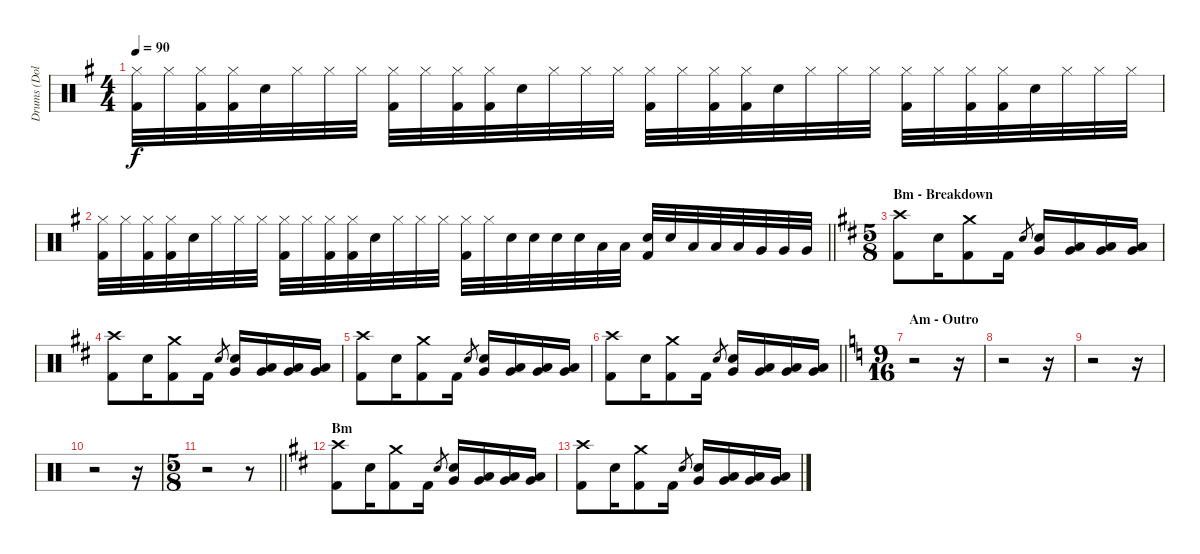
\track ("Drums (Dolmayan)" "Drums (Dol") {instrument percussion}
\staff {score}
\articulation defaults
\ts (4 4)
\tempo 90
\clef neutral
\ks eminor
("Hi-Hat (closed)" "Kick (hit) 2").32{dy f} "Hi-Hat (closed)".32 ("Hi-Hat (closed)" "Kick (hit) 2").32 ("Hi-Hat (closed)" "Kick (hit) 2").32 "Electric Snare (hit)".32 "Hi-Hat (closed)".32 "Hi-Hat (closed)".32 "Hi-Hat (closed)".32 ("Hi-Hat (closed)" "Kick (hit) 2").32 "Hi-Hat (closed)".32 ("Hi-Hat (closed)" "Kick (hit) 2").32 ("Hi-Hat (closed)" "Kick (hit) 2").32 "Electric Snare (hit)".32 "Hi-Hat (closed)".32 "Hi-Hat (closed)".32 "Hi-Hat (closed)".32 ("Hi-Hat (closed)" "Kick (hit) 2").32 "Hi-Hat (closed)".32 ("Hi-Hat (closed)" "Kick (hit) 2").32 ("Hi-Hat (closed)" "Kick (hit) 2").32 "Electric Snare (hit)".32 "Hi-Hat (closed)".32 "Hi-Hat (closed)".32 "Hi-Hat (closed)".32 ("Hi-Hat (closed)" "Kick (hit) 2").32 "Hi-Hat (closed)".32 ("Hi-Hat (closed)" "Kick (hit) 2").32 ("Hi-Hat (closed)" "Kick (hit) 2").32 "Electric Snare (hit)".32 "Hi-Hat (closed)".32 "Hi-Hat (closed)".32 "Hi-Hat (closed)".32 |
\barLineRight lightlight
("Hi-Hat (closed)" "Kick (hit) 2").32 "Hi-Hat (closed)".32 ("Hi-Hat (closed)" "Kick (hit) 2").32 ("Hi-Hat (closed)" "Kick (hit) 2").32 "Electric Snare (hit)".32 "Hi-Hat (closed)".32 "Hi-Hat (closed)".32 "Hi-Hat (closed)".32 ("Hi-Hat (closed)" "Kick (hit) 2").32 "Hi-Hat (closed)".32 ("Hi-Hat (closed)" "Kick (hit) 2").32 ("Hi-Hat (closed)" "Kick (hit) 2").32 "Electric Snare (hit)".32 "Hi-Hat (closed)".32 "Hi-Hat (closed)".32 "Hi-Hat (closed)".32 ("Hi-Hat (closed)" "Kick (hit) 2").32 "Hi-Hat (closed)".32 "Electric Snare (hit)".32 "Electric Snare (hit)".32 "Electric Snare (hit)".32 "Electric Snare (hit)".32 "Low Tom (hit)".32 "Low Tom (hit)".32 ("Electric Snare (hit)" "Kick (hit) 2").32 "Electric Snare (hit)".32 "Low Tom (hit)".32 "Low Tom (hit)".32 "Low Tom (hit)".32 "Very Low Tom (hit)".32 "Very Low Tom (hit)".32 "Very Low Tom (hit)".32 |
\ts (5 8)
\section ("" "Bm - Breakdown")
\ks bminor
("Crash high (hit)" "Kick (hit) 2").8 "Electric Snare (hit)".16 ("Crash medium (hit)" "Kick (hit) 2").8 "Kick (hit) 2".16 "Electric Snare (hit)".8{gr} ("Very Low Tom (hit)" "Electric Snare (hit)").16 ("Low Tom (hit)" "Very Low Tom (hit)").16 ("Very Low Tom (hit)" "Low Floor Tom (hit)").16 ("Very Low Tom (hit)" "Low Floor Tom (hit)").16 |
("Crash high (hit)" "Kick (hit) 2").8 "Electric Snare (hit)".16 ("Crash medium (hit)" "Kick (hit) 2").8 "Kick (hit) 2".16 "Electric Snare (hit)".8{gr} ("Very Low Tom (hit)" "Electric Snare (hit)").16 ("Low Tom (hit)" "Very Low Tom (hit)").16 ("Very Low Tom (hit)" "Low Floor Tom (hit)").16 ("Very Low Tom (hit)" "Low Floor Tom (hit)").16 |
("Crash high (hit)" "Kick (hit) 2").8 "Electric Snare (hit)".16 ("Crash medium (hit)" "Kick (hit) 2").8 "Kick (hit) 2".16 "Electric Snare (hit)".8{gr} ("Very Low Tom (hit)" "Electric Snare (hit)").16 ("Low Tom (hit)" "Very Low Tom (hit)").16 ("Very Low Tom (hit)" "Low Floor Tom (hit)").16 ("Very Low Tom (hit)" "Low Floor Tom (hit)").16 |
\barLineRight lightlight
("Crash high (hit)" "Kick (hit) 2").8 "Electric Snare (hit)".16 ("Crash medium (hit)" "Kick (hit) 2").8 "Kick (hit) 2".16 "Electric Snare (hit)".8{gr} ("Very Low Tom (hit)" "Electric Snare (hit)").16 ("Low Tom (hit)" "Very Low Tom (hit)").16 ("Very Low Tom (hit)" "Low Floor Tom (hit)").16 ("Very Low Tom (hit)" "Low Floor Tom (hit)").16 |
\ts (9 16)
\section ("" "Am - Outro")
\ks aminor
r.2 r.16 |
r.2 r.16 |
r.2 r.16 |
r.2 r.16 |
\ts (5 8)
\barLineRight lightlight
r.2 r.8 |
\section ("" "Bm")
\ks bminor
("Crash high (hit)" "Kick (hit) 2").8 "Electric Snare (hit)".16 ("Crash medium (hit)" "Kick (hit) 2").8 "Kick (hit) 2".16 "Electric Snare (hit)".8{gr} ("Very Low Tom (hit)" "Electric Snare (hit)").16 ("Low Tom (hit)" "Very Low Tom (hit)").16 ("Very Low Tom (hit)" "Low Floor Tom (hit)").16 ("Very Low Tom (hit)" "Low Floor Tom (hit)").16 |
("Crash high (hit)" "Kick (hit) 2").8 "Electric Snare (hit)".16 ("Crash medium (hit)" "Kick (hit) 2").8 "Kick (hit) 2".16 "Electric Snare (hit)".8{gr} ("Very Low Tom (hit)" "Electric Snare (hit)").16 ("Low Tom (hit)" "Very Low Tom (hit)").16 ("Very Low Tom (hit)" "Low Floor Tom (hit)").16 ("Very Low Tom (hit)" "Low Floor Tom (hit)").16
